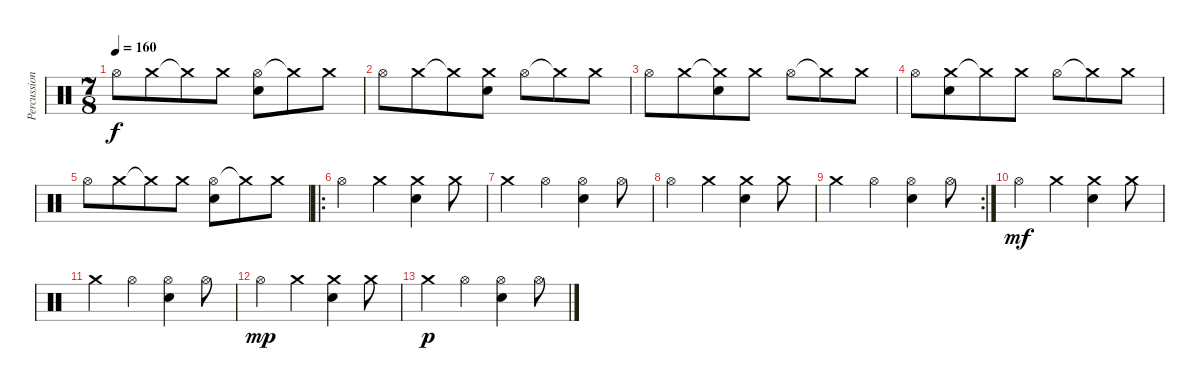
\track ("Percussion" "Percussion") {instrument percussion}
\staff {score}
\articulation defaults
\ts (7 8)
\tempo 160
\clef neutral
\ks c "Hi-Hat (open)".8{dy f} "Crash medium (hit)".8 "Crash medium (hit)"{t}.8 "Crash medium (hit)".8
("Hi-Hat (open)" "Snare (hit) 2").8 "Crash medium (hit)"{t}.8 "Crash medium (hit)".8 |
"Hi-Hat (open)".8 "Crash medium (hit)".8 "Crash medium (hit)"{t}.8 ("Crash medium (hit)" "Snare (hit) 2").8 "Hi-Hat (open)".8 "Crash medium (hit)"{t}.8 "Crash medium (hit)".8 |
"Hi-Hat (open)".8 "Crash medium (hit)".8 ("Crash medium (hit)"{t} "Snare (hit) 2").8 "Crash medium (hit)".8 "Hi-Hat (open)".8 "Crash medium (hit)"{t}.8 "Crash medium (hit)".8 |
"Hi-Hat (open)".8 ("Crash medium (hit)" "Snare (hit) 2").8 "Crash medium (hit)"{t}.8 "Crash medium (hit)".8 "Hi-Hat (open)".8 "Crash medium (hit)"{t}.8 "Crash medium (hit)".8 |
"Hi-Hat (open)".8 "Crash medium (hit)".8 "Crash medium (hit)"{t}.8 "Crash medium (hit)".8 ("Hi-Hat (open)" "Snare (hit) 2").8 "Crash medium (hit)"{t}.8 "Crash medium (hit)".8 |
\ro "Hi-Hat (open)".4 "Crash medium (hit)".4
("Crash medium (hit)" "Snare (hit) 2").4 "Crash medium (hit)".8 |
"Crash medium (hit)".4 "Hi-Hat (open)".4 ("Hi-Hat (open)" "Snare (hit) 2").4 "Hi-Hat (open)".8 |
"Hi-Hat (open)".4 "Crash medium (hit)".4 ("Crash medium (hit)" "Snare (hit) 2").4 "Crash medium (hit)".8 |
\rc 2 "Crash medium (hit)".4 "Hi-Hat (open)".4
("Hi-Hat (open)" "Snare (hit) 2").4 "Hi-Hat (open)".8 |
"Hi-Hat (open)".4{dy mf} "Crash medium (hit)".4 ("Crash medium (hit)" "Snare (hit) 2").4 "Crash medium (hit)".8 |
"Crash medium (hit)".4 "Hi-Hat (open)".4 ("Hi-Hat (open)" "Snare (hit) 2").4 "Hi-Hat (open)".8 |
"Hi-Hat (open)".4{dy mp} "Crash medium (hit)".4 ("Crash medium (hit)" "Snare (hit) 2").4 "Crash medium (hit)".8 |
"Crash medium (hit)".4{dy p} "Hi-Hat (open)".4 ("Hi-Hat (open)" "Snare (hit) 2").4 "Hi-Hat (open)".8
